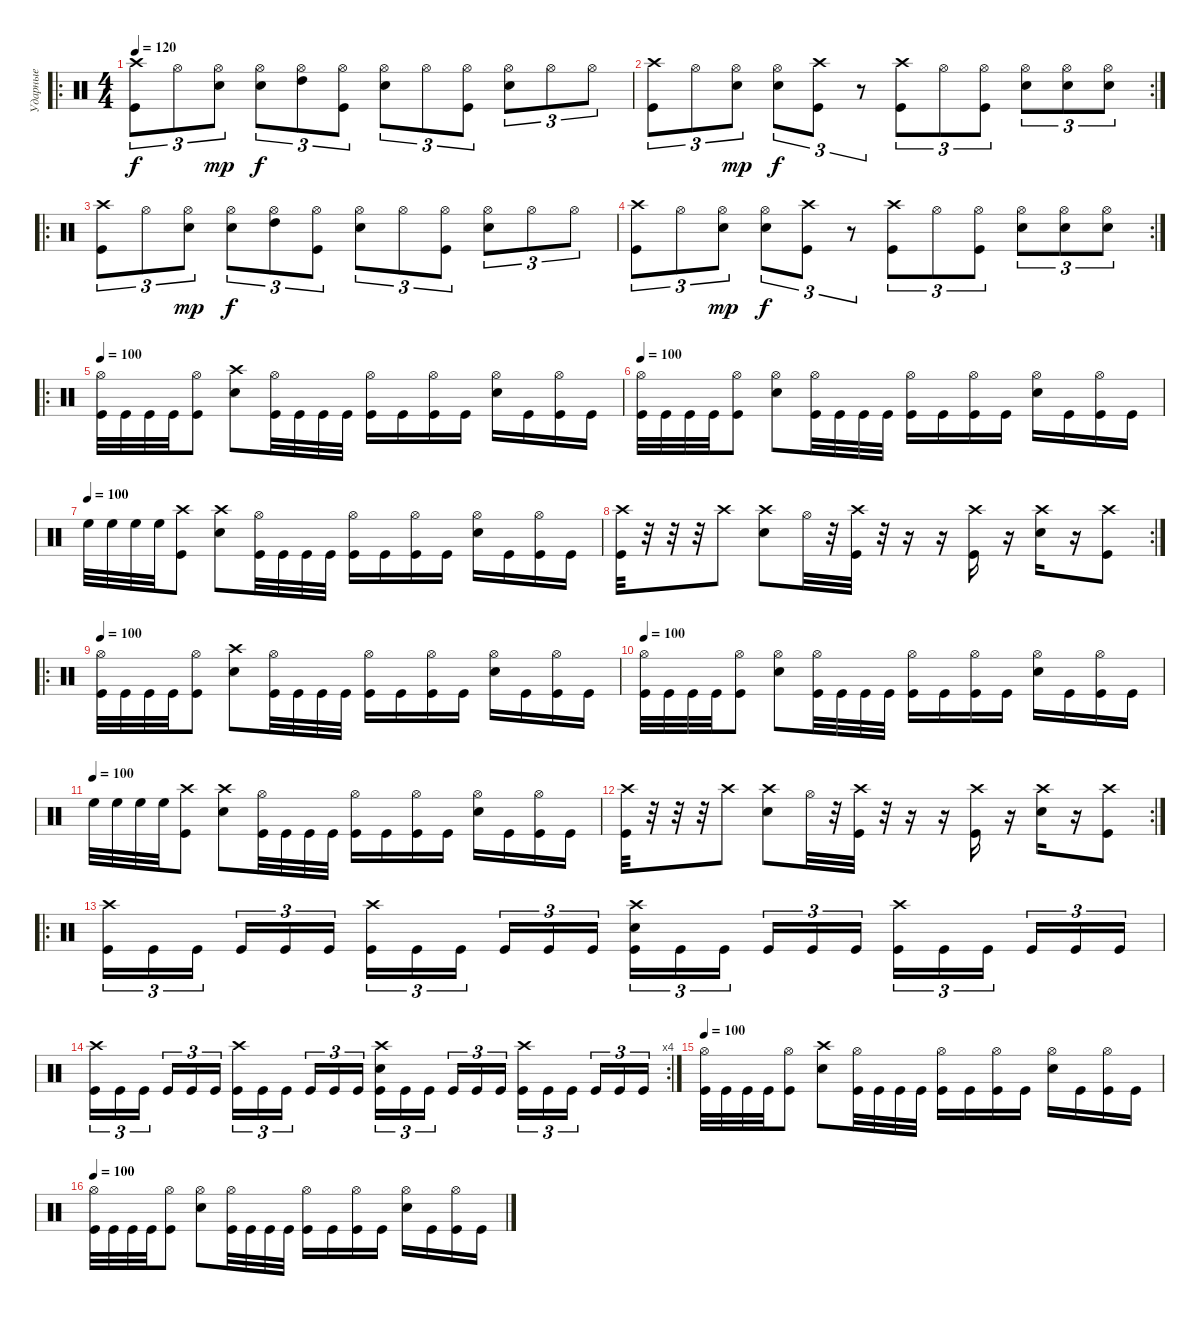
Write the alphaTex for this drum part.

\track ("Ударные" "Ударные") {instrument percussion}
\staff {score}
\articulation defaults
\ro
\ts (4 4)
\tempo 120
\clef neutral
\ks c
("Crash high (hit)" "Kick (hit)").8{tu (3 2) dy f} "Hi-Hat (open)".8{tu (3 2)} ("Hi-Hat (open)" "Snare (hit) 2").8{tu (3 2) dy mp} ("Hi-Hat (open)" "Snare (hit) 2").8{tu (3 2) dy f} ("Hi-Hat (open)" "High Tom (hit)").8{tu (3 2)} ("Hi-Hat (open)" "Kick (hit)").8{tu (3 2)} ("Snare (hit) 2" "Hi-Hat (open)").8{tu (3 2)} "Hi-Hat (open)".8{tu (3 2)} ("Hi-Hat (open)" "Kick (hit)").8{tu (3 2)} ("Hi-Hat (open)" "Snare (hit) 2").8{tu (3 2)} "Hi-Hat (open)".8{tu (3 2)} "Hi-Hat (open)".8{tu (3 2)} |
\rc 2
("Crash high (hit)" "Kick (hit)").8{tu (3 2)} "Hi-Hat (open)".8{tu (3 2)} ("Hi-Hat (open)" "Snare (hit) 2").8{tu (3 2) dy mp} ("Hi-Hat (open)" "Snare (hit) 2").8{tu (3 2) dy f} ("Crash high (hit)" "Kick (hit)").8{tu (3 2)} r.8{tu (3 2)} ("Crash high (hit)" "Kick (hit)").8{tu (3 2)} "Hi-Hat (open)".8{tu (3 2)} ("Hi-Hat (open)" "Kick (hit)").8{tu (3 2)} ("Hi-Hat (open)" "Snare (hit) 2").8{tu (3 2)} ("Hi-Hat (open)" "Snare (hit) 2").8{tu (3 2)} ("Hi-Hat (open)" "Snare (hit) 2").8{tu (3 2)} |
\ro
("Crash high (hit)" "Kick (hit)").8{tu (3 2)} "Hi-Hat (open)".8{tu (3 2)} ("Hi-Hat (open)" "Snare (hit) 2").8{tu (3 2) dy mp} ("Hi-Hat (open)" "Snare (hit) 2").8{tu (3 2) dy f} ("Hi-Hat (open)" "High Tom (hit)").8{tu (3 2)} ("Hi-Hat (open)" "Kick (hit)").8{tu (3 2)} ("Snare (hit) 2" "Hi-Hat (open)").8{tu (3 2)} "Hi-Hat (open)".8{tu (3 2)} ("Hi-Hat (open)" "Kick (hit)").8{tu (3 2)} ("Hi-Hat (open)" "Snare (hit) 2").8{tu (3 2)} "Hi-Hat (open)".8{tu (3 2)} "Hi-Hat (open)".8{tu (3 2)} |
\rc 2
("Crash high (hit)" "Kick (hit)").8{tu (3 2)} "Hi-Hat (open)".8{tu (3 2)} ("Hi-Hat (open)" "Snare (hit) 2").8{tu (3 2) dy mp} ("Hi-Hat (open)" "Snare (hit) 2").8{tu (3 2) dy f} ("Crash high (hit)" "Kick (hit)").8{tu (3 2)} r.8{tu (3 2)} ("Crash high (hit)" "Kick (hit)").8{tu (3 2)} "Hi-Hat (open)".8{tu (3 2)} ("Hi-Hat (open)" "Kick (hit)").8{tu (3 2)} ("Hi-Hat (open)" "Snare (hit) 2").8{tu (3 2)} ("Hi-Hat (open)" "Snare (hit) 2").8{tu (3 2)} ("Hi-Hat (open)" "Snare (hit) 2").8{tu (3 2)} |
\ro
\tempo 100
("Hi-Hat (open)" "Kick (hit)").32 "Kick (hit)".32 "Kick (hit)".32 "Kick (hit)".32 ("Hi-Hat (open)" "Kick (hit)").8 ("Crash high (hit)" "Snare (hit) 2").8 ("Hi-Hat (open)" "Kick (hit)").32 "Kick (hit)".32 "Kick (hit)".32 "Kick (hit)".32 ("Hi-Hat (open)" "Kick (hit)").16 "Kick (hit)".16 ("Hi-Hat (open)" "Kick (hit)").16 "Kick (hit)".16 ("Snare (hit) 2" "Hi-Hat (open)").16 "Kick (hit)".16 ("Hi-Hat (open)" "Kick (hit)").16 "Kick (hit)".16 |
\tempo 100
("Hi-Hat (open)" "Kick (hit)").32 "Kick (hit)".32 "Kick (hit)".32 "Kick (hit)".32 ("Hi-Hat (open)" "Kick (hit)").8 ("Hi-Hat (open)" "Snare (hit) 2").8 ("Hi-Hat (open)" "Kick (hit)").32 "Kick (hit)".32 "Kick (hit)".32 "Kick (hit)".32 ("Hi-Hat (open)" "Kick (hit)").16 "Kick (hit)".16 ("Hi-Hat (open)" "Kick (hit)").16 "Kick (hit)".16 ("Snare (hit) 2" "Hi-Hat (open)").16 "Kick (hit)".16 ("Hi-Hat (open)" "Kick (hit)").16 "Kick (hit)".16 |
\tempo (100)
"High Floor Tom (hit)".32 "High Floor Tom (hit)".32 "High Floor Tom (hit)".32 "High Floor Tom (hit)".32 ("Crash high (hit)" "Kick (hit)").8 ("Crash high (hit)" "Snare (hit) 2").8 ("Hi-Hat (open)" "Kick (hit)").32 "Kick (hit)".32 "Kick (hit)".32 "Kick (hit)".32 ("Hi-Hat (open)" "Kick (hit)").16 "Kick (hit)".16 ("Hi-Hat (open)" "Kick (hit)").16 "Kick (hit)".16 ("Hi-Hat (open)" "Snare (hit) 2").16 "Kick (hit)".16 ("Hi-Hat (open)" "Kick (hit)").16 "Kick (hit)".16 |
\rc 2
("Crash high (hit)" "Kick (hit)").32 r.32 r.32 r.32 "Crash high (hit)".8 ("Crash high (hit)" "Snare (hit) 2").8 "Hi-Hat (open)".32 r.32 ("Crash high (hit)" "Kick (hit)").32 r.32 r.16 r.16 ("Crash high (hit)" "Kick (hit)").16 r.16 ("Crash high (hit)" "Snare (hit) 2").16 r.16 ("Crash high (hit)" "Kick (hit)").8 |
\ro
\tempo 100
("Hi-Hat (open)" "Kick (hit)").32 "Kick (hit)".32 "Kick (hit)".32 "Kick (hit)".32 ("Hi-Hat (open)" "Kick (hit)").8 ("Crash high (hit)" "Snare (hit) 2").8 ("Hi-Hat (open)" "Kick (hit)").32 "Kick (hit)".32 "Kick (hit)".32 "Kick (hit)".32 ("Hi-Hat (open)" "Kick (hit)").16 "Kick (hit)".16 ("Hi-Hat (open)" "Kick (hit)").16 "Kick (hit)".16 ("Snare (hit) 2" "Hi-Hat (open)").16 "Kick (hit)".16 ("Hi-Hat (open)" "Kick (hit)").16 "Kick (hit)".16 |
\tempo 100
("Hi-Hat (open)" "Kick (hit)").32 "Kick (hit)".32 "Kick (hit)".32 "Kick (hit)".32 ("Hi-Hat (open)" "Kick (hit)").8 ("Hi-Hat (open)" "Snare (hit) 2").8 ("Hi-Hat (open)" "Kick (hit)").32 "Kick (hit)".32 "Kick (hit)".32 "Kick (hit)".32 ("Hi-Hat (open)" "Kick (hit)").16 "Kick (hit)".16 ("Hi-Hat (open)" "Kick (hit)").16 "Kick (hit)".16 ("Snare (hit) 2" "Hi-Hat (open)").16 "Kick (hit)".16 ("Hi-Hat (open)" "Kick (hit)").16 "Kick (hit)".16 |
\tempo (100)
"High Floor Tom (hit)".32 "High Floor Tom (hit)".32 "High Floor Tom (hit)".32 "High Floor Tom (hit)".32 ("Crash high (hit)" "Kick (hit)").8 ("Crash high (hit)" "Snare (hit) 2").8 ("Hi-Hat (open)" "Kick (hit)").32 "Kick (hit)".32 "Kick (hit)".32 "Kick (hit)".32 ("Hi-Hat (open)" "Kick (hit)").16 "Kick (hit)".16 ("Hi-Hat (open)" "Kick (hit)").16 "Kick (hit)".16 ("Hi-Hat (open)" "Snare (hit) 2").16 "Kick (hit)".16 ("Hi-Hat (open)" "Kick (hit)").16 "Kick (hit)".16 |
\rc 2
("Crash high (hit)" "Kick (hit)").32 r.32 r.32 r.32 "Crash high (hit)".8 ("Crash high (hit)" "Snare (hit) 2").8 "Hi-Hat (open)".32 r.32 ("Crash high (hit)" "Kick (hit)").32 r.32 r.16 r.16 ("Crash high (hit)" "Kick (hit)").16 r.16 ("Crash high (hit)" "Snare (hit) 2").16 r.16 ("Crash high (hit)" "Kick (hit)").8 |
\ro
("Crash high (hit)" "Kick (hit)").16{tu (3 2)} "Kick (hit)".16{tu (3 2)} "Kick (hit)".16{tu (3 2) beam splitsecondary} "Kick (hit)".16{tu (3 2)} "Kick (hit)".16{tu (3 2)} "Kick (hit)".16{tu (3 2)} ("Crash high (hit)" "Kick (hit)").16{tu (3 2)} "Kick (hit)".16{tu (3 2)} "Kick (hit)".16{tu (3 2) beam splitsecondary} "Kick (hit)".16{tu (3 2)} "Kick (hit)".16{tu (3 2)} "Kick (hit)".16{tu (3 2)} ("Crash high (hit)" "Snare (hit) 2" "Kick (hit)").16{tu (3 2)} "Kick (hit)".16{tu (3 2)} "Kick (hit)".16{tu (3 2) beam splitsecondary} "Kick (hit)".16{tu (3 2)} "Kick (hit)".16{tu (3 2)} "Kick (hit)".16{tu (3 2)} ("Crash high (hit)" "Kick (hit)").16{tu (3 2)} "Kick (hit)".16{tu (3 2)} "Kick (hit)".16{tu (3 2) beam splitsecondary} "Kick (hit)".16{tu (3 2)} "Kick (hit)".16{tu (3 2)} "Kick (hit)".16{tu (3 2)} |
\rc 4
("Crash high (hit)" "Kick (hit)").16{tu (3 2)} "Kick (hit)".16{tu (3 2)} "Kick (hit)".16{tu (3 2) beam splitsecondary} "Kick (hit)".16{tu (3 2)} "Kick (hit)".16{tu (3 2)} "Kick (hit)".16{tu (3 2)} ("Crash high (hit)" "Kick (hit)").16{tu (3 2)} "Kick (hit)".16{tu (3 2)} "Kick (hit)".16{tu (3 2) beam splitsecondary} "Kick (hit)".16{tu (3 2)} "Kick (hit)".16{tu (3 2)} "Kick (hit)".16{tu (3 2)} ("Crash high (hit)" "Snare (hit) 2" "Kick (hit)").16{tu (3 2)} "Kick (hit)".16{tu (3 2)} "Kick (hit)".16{tu (3 2) beam splitsecondary} "Kick (hit)".16{tu (3 2)} "Kick (hit)".16{tu (3 2)} "Kick (hit)".16{tu (3 2)} ("Crash high (hit)" "Kick (hit)").16{tu (3 2)} "Kick (hit)".16{tu (3 2)} "Kick (hit)".16{tu (3 2) beam splitsecondary} "Kick (hit)".16{tu (3 2)} "Kick (hit)".16{tu (3 2)} "Kick (hit)".16{tu (3 2)} |
\tempo 100
("Hi-Hat (open)" "Kick (hit)").32 "Kick (hit)".32 "Kick (hit)".32 "Kick (hit)".32 ("Hi-Hat (open)" "Kick (hit)").8 ("Crash high (hit)" "Snare (hit) 2").8 ("Hi-Hat (open)" "Kick (hit)").32 "Kick (hit)".32 "Kick (hit)".32 "Kick (hit)".32 ("Hi-Hat (open)" "Kick (hit)").16 "Kick (hit)".16 ("Hi-Hat (open)" "Kick (hit)").16 "Kick (hit)".16 ("Snare (hit) 2" "Hi-Hat (open)").16 "Kick (hit)".16 ("Hi-Hat (open)" "Kick (hit)").16 "Kick (hit)".16 |
\tempo 100
("Hi-Hat (open)" "Kick (hit)").32 "Kick (hit)".32 "Kick (hit)".32 "Kick (hit)".32 ("Hi-Hat (open)" "Kick (hit)").8 ("Hi-Hat (open)" "Snare (hit) 2").8 ("Hi-Hat (open)" "Kick (hit)").32 "Kick (hit)".32 "Kick (hit)".32 "Kick (hit)".32 ("Hi-Hat (open)" "Kick (hit)").16 "Kick (hit)".16 ("Hi-Hat (open)" "Kick (hit)").16 "Kick (hit)".16 ("Snare (hit) 2" "Hi-Hat (open)").16 "Kick (hit)".16 ("Hi-Hat (open)" "Kick (hit)").16 "Kick (hit)".16
